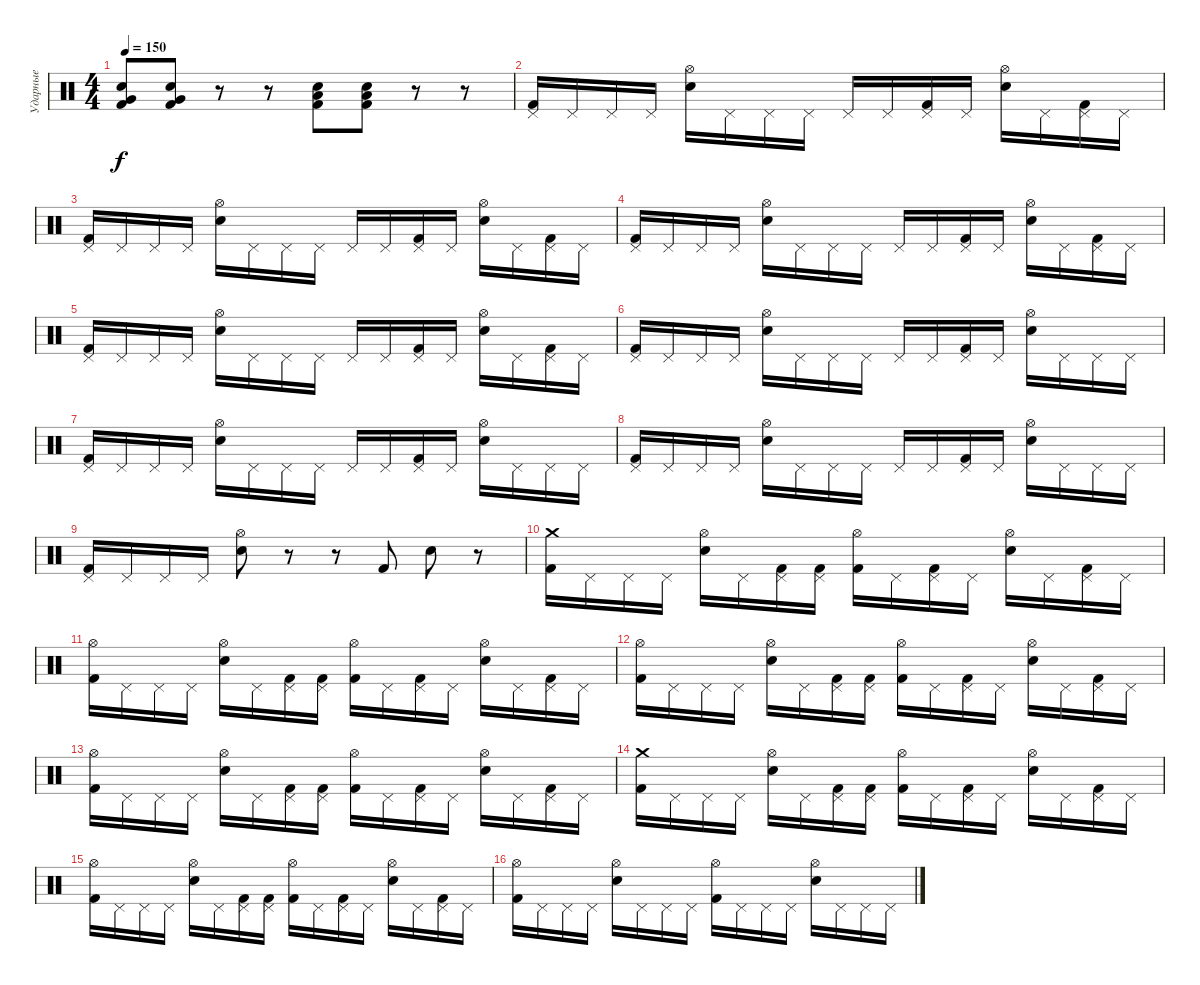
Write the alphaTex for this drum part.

\track ("Ударные" "Ударные") {instrument percussion}
\staff {score}
\articulation defaults
\ts (4 4)
\tempo 150
\clef neutral
\ks c
("Very Low Tom (hit)" "Electric Snare (hit)" "Kick (hit) 2").8{dy f} ("Very Low Tom (hit)" "Electric Snare (hit)" "Kick (hit) 2").8 r.8 r.8 ("Low Floor Tom (hit)" "Electric Snare (hit)" "Kick (hit) 2").8 ("Low Floor Tom (hit)" "Electric Snare (hit)" "Kick (hit) 2").8 r.8 r.8 |
("Pedal Hi-Hat (hit)" "Kick (hit) 2").16 "Pedal Hi-Hat (hit)".16 "Pedal Hi-Hat (hit)".16 "Pedal Hi-Hat (hit)".16 ("Hi-Hat (open)" "Electric Snare (hit)").16 "Pedal Hi-Hat (hit)".16 "Pedal Hi-Hat (hit)".16 "Pedal Hi-Hat (hit)".16 "Pedal Hi-Hat (hit)".16 "Pedal Hi-Hat (hit)".16 ("Pedal Hi-Hat (hit)" "Kick (hit) 2").16 "Pedal Hi-Hat (hit)".16 ("Hi-Hat (open)" "Electric Snare (hit)").16 "Pedal Hi-Hat (hit)".16 ("Pedal Hi-Hat (hit)" "Kick (hit) 2").16 "Pedal Hi-Hat (hit)".16 |
("Pedal Hi-Hat (hit)" "Kick (hit) 2").16 "Pedal Hi-Hat (hit)".16 "Pedal Hi-Hat (hit)".16 "Pedal Hi-Hat (hit)".16 ("Hi-Hat (open)" "Electric Snare (hit)").16 "Pedal Hi-Hat (hit)".16 "Pedal Hi-Hat (hit)".16 "Pedal Hi-Hat (hit)".16 "Pedal Hi-Hat (hit)".16 "Pedal Hi-Hat (hit)".16 ("Pedal Hi-Hat (hit)" "Kick (hit) 2").16 "Pedal Hi-Hat (hit)".16 ("Hi-Hat (open)" "Electric Snare (hit)").16 "Pedal Hi-Hat (hit)".16 ("Pedal Hi-Hat (hit)" "Kick (hit) 2").16 "Pedal Hi-Hat (hit)".16 |
("Pedal Hi-Hat (hit)" "Kick (hit) 2").16 "Pedal Hi-Hat (hit)".16 "Pedal Hi-Hat (hit)".16 "Pedal Hi-Hat (hit)".16 ("Hi-Hat (open)" "Electric Snare (hit)").16 "Pedal Hi-Hat (hit)".16 "Pedal Hi-Hat (hit)".16 "Pedal Hi-Hat (hit)".16 "Pedal Hi-Hat (hit)".16 "Pedal Hi-Hat (hit)".16 ("Pedal Hi-Hat (hit)" "Kick (hit) 2").16 "Pedal Hi-Hat (hit)".16 ("Hi-Hat (open)" "Electric Snare (hit)").16 "Pedal Hi-Hat (hit)".16 ("Pedal Hi-Hat (hit)" "Kick (hit) 2").16 "Pedal Hi-Hat (hit)".16 |
("Pedal Hi-Hat (hit)" "Kick (hit) 2").16 "Pedal Hi-Hat (hit)".16 "Pedal Hi-Hat (hit)".16 "Pedal Hi-Hat (hit)".16 ("Hi-Hat (open)" "Electric Snare (hit)").16 "Pedal Hi-Hat (hit)".16 "Pedal Hi-Hat (hit)".16 "Pedal Hi-Hat (hit)".16 "Pedal Hi-Hat (hit)".16 "Pedal Hi-Hat (hit)".16 ("Pedal Hi-Hat (hit)" "Kick (hit) 2").16 "Pedal Hi-Hat (hit)".16 ("Hi-Hat (open)" "Electric Snare (hit)").16 "Pedal Hi-Hat (hit)".16 ("Pedal Hi-Hat (hit)" "Kick (hit) 2").16 "Pedal Hi-Hat (hit)".16 |
("Pedal Hi-Hat (hit)" "Kick (hit) 2").16 "Pedal Hi-Hat (hit)".16 "Pedal Hi-Hat (hit)".16 "Pedal Hi-Hat (hit)".16 ("Hi-Hat (open)" "Electric Snare (hit)").16 "Pedal Hi-Hat (hit)".16 "Pedal Hi-Hat (hit)".16 "Pedal Hi-Hat (hit)".16 "Pedal Hi-Hat (hit)".16 "Pedal Hi-Hat (hit)".16 ("Pedal Hi-Hat (hit)" "Kick (hit) 2").16 "Pedal Hi-Hat (hit)".16 ("Hi-Hat (open)" "Electric Snare (hit)").16 "Pedal Hi-Hat (hit)".16 "Pedal Hi-Hat (hit)".16 "Pedal Hi-Hat (hit)".16 |
("Pedal Hi-Hat (hit)" "Kick (hit) 2").16 "Pedal Hi-Hat (hit)".16 "Pedal Hi-Hat (hit)".16 "Pedal Hi-Hat (hit)".16 ("Hi-Hat (open)" "Electric Snare (hit)").16 "Pedal Hi-Hat (hit)".16 "Pedal Hi-Hat (hit)".16 "Pedal Hi-Hat (hit)".16 "Pedal Hi-Hat (hit)".16 "Pedal Hi-Hat (hit)".16 ("Pedal Hi-Hat (hit)" "Kick (hit) 2").16 "Pedal Hi-Hat (hit)".16 ("Hi-Hat (open)" "Electric Snare (hit)").16 "Pedal Hi-Hat (hit)".16 "Pedal Hi-Hat (hit)".16 "Pedal Hi-Hat (hit)".16 |
("Pedal Hi-Hat (hit)" "Kick (hit) 2").16 "Pedal Hi-Hat (hit)".16 "Pedal Hi-Hat (hit)".16 "Pedal Hi-Hat (hit)".16 ("Hi-Hat (open)" "Electric Snare (hit)").16 "Pedal Hi-Hat (hit)".16 "Pedal Hi-Hat (hit)".16 "Pedal Hi-Hat (hit)".16 "Pedal Hi-Hat (hit)".16 "Pedal Hi-Hat (hit)".16 ("Pedal Hi-Hat (hit)" "Kick (hit) 2").16 "Pedal Hi-Hat (hit)".16 ("Hi-Hat (open)" "Electric Snare (hit)").16 "Pedal Hi-Hat (hit)".16 "Pedal Hi-Hat (hit)".16 "Pedal Hi-Hat (hit)".16 |
("Pedal Hi-Hat (hit)" "Kick (hit) 2").16 "Pedal Hi-Hat (hit)".16 "Pedal Hi-Hat (hit)".16 "Pedal Hi-Hat (hit)".16 ("Hi-Hat (open)" "Electric Snare (hit)").8 r.8 r.8 "Kick (hit) 2".8 "Electric Snare (hit)".8 r.8 |
("Crash medium (hit)" "Kick (hit) 2").16 "Pedal Hi-Hat (hit)".16 "Pedal Hi-Hat (hit)".16 "Pedal Hi-Hat (hit)".16 ("Hi-Hat (open)" "Electric Snare (hit)").16 "Pedal Hi-Hat (hit)".16 ("Pedal Hi-Hat (hit)" "Kick (hit) 2").16 ("Pedal Hi-Hat (hit)" "Kick (hit) 2").16 ("Hi-Hat (open)" "Kick (hit) 2").16 "Pedal Hi-Hat (hit)".16 ("Pedal Hi-Hat (hit)" "Kick (hit) 2").16 "Pedal Hi-Hat (hit)".16 ("Hi-Hat (open)" "Electric Snare (hit)").16 "Pedal Hi-Hat (hit)".16 ("Pedal Hi-Hat (hit)" "Kick (hit) 2").16 "Pedal Hi-Hat (hit)".16 |
("Hi-Hat (open)" "Kick (hit) 2").16 "Pedal Hi-Hat (hit)".16 "Pedal Hi-Hat (hit)".16 "Pedal Hi-Hat (hit)".16 ("Hi-Hat (open)" "Electric Snare (hit)").16 "Pedal Hi-Hat (hit)".16 ("Pedal Hi-Hat (hit)" "Kick (hit) 2").16 ("Pedal Hi-Hat (hit)" "Kick (hit) 2").16 ("Hi-Hat (open)" "Kick (hit) 2").16 "Pedal Hi-Hat (hit)".16 ("Pedal Hi-Hat (hit)" "Kick (hit) 2").16 "Pedal Hi-Hat (hit)".16 ("Hi-Hat (open)" "Electric Snare (hit)").16 "Pedal Hi-Hat (hit)".16 ("Pedal Hi-Hat (hit)" "Kick (hit) 2").16 "Pedal Hi-Hat (hit)".16 |
("Hi-Hat (open)" "Kick (hit) 2").16 "Pedal Hi-Hat (hit)".16 "Pedal Hi-Hat (hit)".16 "Pedal Hi-Hat (hit)".16 ("Hi-Hat (open)" "Electric Snare (hit)").16 "Pedal Hi-Hat (hit)".16 ("Pedal Hi-Hat (hit)" "Kick (hit) 2").16 ("Pedal Hi-Hat (hit)" "Kick (hit) 2").16 ("Hi-Hat (open)" "Kick (hit) 2").16 "Pedal Hi-Hat (hit)".16 ("Pedal Hi-Hat (hit)" "Kick (hit) 2").16 "Pedal Hi-Hat (hit)".16 ("Hi-Hat (open)" "Electric Snare (hit)").16 "Pedal Hi-Hat (hit)".16 ("Pedal Hi-Hat (hit)" "Kick (hit) 2").16 "Pedal Hi-Hat (hit)".16 |
("Hi-Hat (open)" "Kick (hit) 2").16 "Pedal Hi-Hat (hit)".16 "Pedal Hi-Hat (hit)".16 "Pedal Hi-Hat (hit)".16 ("Hi-Hat (open)" "Electric Snare (hit)").16 "Pedal Hi-Hat (hit)".16 ("Pedal Hi-Hat (hit)" "Kick (hit) 2").16 ("Pedal Hi-Hat (hit)" "Kick (hit) 2").16 ("Hi-Hat (open)" "Kick (hit) 2").16 "Pedal Hi-Hat (hit)".16 ("Pedal Hi-Hat (hit)" "Kick (hit) 2").16 "Pedal Hi-Hat (hit)".16 ("Hi-Hat (open)" "Electric Snare (hit)").16 "Pedal Hi-Hat (hit)".16 ("Pedal Hi-Hat (hit)" "Kick (hit) 2").16 "Pedal Hi-Hat (hit)".16 |
("Crash medium (hit)" "Kick (hit) 2").16 "Pedal Hi-Hat (hit)".16 "Pedal Hi-Hat (hit)".16 "Pedal Hi-Hat (hit)".16 ("Hi-Hat (open)" "Electric Snare (hit)").16 "Pedal Hi-Hat (hit)".16 ("Pedal Hi-Hat (hit)" "Kick (hit) 2").16 ("Pedal Hi-Hat (hit)" "Kick (hit) 2").16 ("Hi-Hat (open)" "Kick (hit) 2").16 "Pedal Hi-Hat (hit)".16 ("Pedal Hi-Hat (hit)" "Kick (hit) 2").16 "Pedal Hi-Hat (hit)".16 ("Hi-Hat (open)" "Electric Snare (hit)").16 "Pedal Hi-Hat (hit)".16 ("Pedal Hi-Hat (hit)" "Kick (hit) 2").16 "Pedal Hi-Hat (hit)".16 |
("Hi-Hat (open)" "Kick (hit) 2").16 "Pedal Hi-Hat (hit)".16 "Pedal Hi-Hat (hit)".16 "Pedal Hi-Hat (hit)".16 ("Hi-Hat (open)" "Electric Snare (hit)").16 "Pedal Hi-Hat (hit)".16 ("Pedal Hi-Hat (hit)" "Kick (hit) 2").16 ("Pedal Hi-Hat (hit)" "Kick (hit) 2").16 ("Hi-Hat (open)" "Kick (hit) 2").16 "Pedal Hi-Hat (hit)".16 ("Pedal Hi-Hat (hit)" "Kick (hit) 2").16 "Pedal Hi-Hat (hit)".16 ("Hi-Hat (open)" "Electric Snare (hit)").16 "Pedal Hi-Hat (hit)".16 ("Pedal Hi-Hat (hit)" "Kick (hit) 2").16 "Pedal Hi-Hat (hit)".16 |
("Hi-Hat (open)" "Kick (hit) 2").16 "Pedal Hi-Hat (hit)".16 "Pedal Hi-Hat (hit)".16 "Pedal Hi-Hat (hit)".16 ("Hi-Hat (open)" "Electric Snare (hit)").16 "Pedal Hi-Hat (hit)".16 "Pedal Hi-Hat (hit)".16 "Pedal Hi-Hat (hit)".16 ("Hi-Hat (open)" "Kick (hit) 2").16 "Pedal Hi-Hat (hit)".16 "Pedal Hi-Hat (hit)".16 "Pedal Hi-Hat (hit)".16 ("Hi-Hat (open)" "Electric Snare (hit)").16 "Pedal Hi-Hat (hit)".16 "Pedal Hi-Hat (hit)".16 "Pedal Hi-Hat (hit)".16
